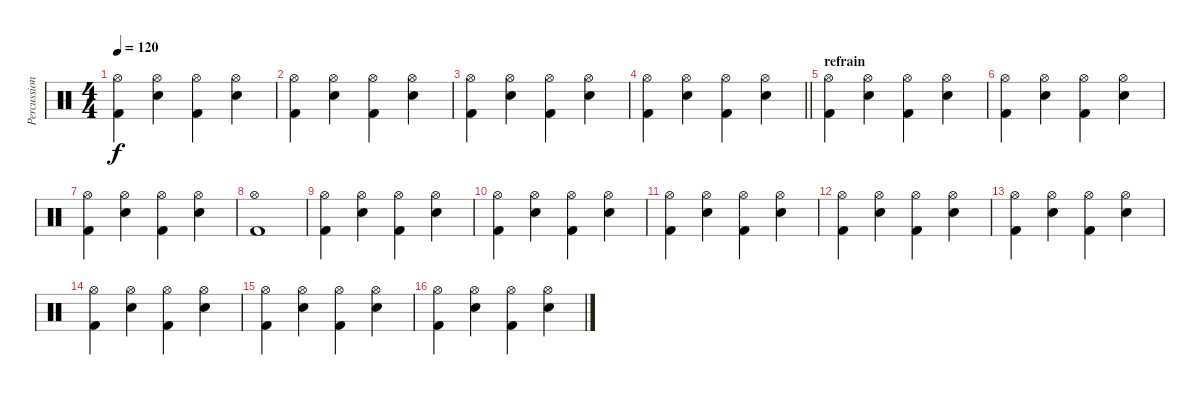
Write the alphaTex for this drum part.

\track ("Percussions" "Percussion") {instrument percussion}
\staff {score}
\articulation defaults
\ts (4 4)
\tempo 120
\clef neutral
\ks c
("Hi-Hat (open)" "Kick (hit) 2").4{dy f} ("Hi-Hat (open)" "Electric Snare (hit)").4 ("Hi-Hat (open)" "Kick (hit) 2").4 ("Hi-Hat (open)" "Electric Snare (hit)").4 |
("Hi-Hat (open)" "Kick (hit) 2").4 ("Hi-Hat (open)" "Electric Snare (hit)").4 ("Hi-Hat (open)" "Kick (hit) 2").4 ("Hi-Hat (open)" "Electric Snare (hit)").4 |
("Hi-Hat (open)" "Kick (hit) 2").4 ("Hi-Hat (open)" "Electric Snare (hit)").4 ("Hi-Hat (open)" "Kick (hit) 2").4 ("Hi-Hat (open)" "Electric Snare (hit)").4 |
\barLineRight lightlight
("Hi-Hat (open)" "Kick (hit) 2").4 ("Hi-Hat (open)" "Electric Snare (hit)").4 ("Hi-Hat (open)" "Kick (hit) 2").4 ("Hi-Hat (open)" "Electric Snare (hit)").4 |
\section ("" "refrain")
("Hi-Hat (open)" "Kick (hit) 2").4 ("Hi-Hat (open)" "Electric Snare (hit)").4 ("Hi-Hat (open)" "Kick (hit) 2").4 ("Hi-Hat (open)" "Electric Snare (hit)").4 |
("Hi-Hat (open)" "Kick (hit) 2").4 ("Hi-Hat (open)" "Electric Snare (hit)").4 ("Hi-Hat (open)" "Kick (hit) 2").4 ("Hi-Hat (open)" "Electric Snare (hit)").4 |
("Hi-Hat (open)" "Kick (hit) 2").4 ("Hi-Hat (open)" "Electric Snare (hit)").4 ("Hi-Hat (open)" "Kick (hit) 2").4 ("Hi-Hat (open)" "Electric Snare (hit)").4 |
("Hi-Hat (open)" "Kick (hit) 2").1 |
("Hi-Hat (open)" "Kick (hit) 2").4 ("Hi-Hat (open)" "Electric Snare (hit)").4 ("Hi-Hat (open)" "Kick (hit) 2").4 ("Hi-Hat (open)" "Electric Snare (hit)").4 |
("Hi-Hat (open)" "Kick (hit) 2").4 ("Hi-Hat (open)" "Electric Snare (hit)").4 ("Hi-Hat (open)" "Kick (hit) 2").4 ("Hi-Hat (open)" "Electric Snare (hit)").4 |
("Hi-Hat (open)" "Kick (hit) 2").4 ("Hi-Hat (open)" "Electric Snare (hit)").4 ("Hi-Hat (open)" "Kick (hit) 2").4 ("Hi-Hat (open)" "Electric Snare (hit)").4 |
("Hi-Hat (open)" "Kick (hit) 2").4 ("Hi-Hat (open)" "Electric Snare (hit)").4 ("Hi-Hat (open)" "Kick (hit) 2").4 ("Hi-Hat (open)" "Electric Snare (hit)").4 |
("Hi-Hat (open)" "Kick (hit) 2").4 ("Hi-Hat (open)" "Electric Snare (hit)").4 ("Hi-Hat (open)" "Kick (hit) 2").4 ("Hi-Hat (open)" "Electric Snare (hit)").4 |
("Hi-Hat (open)" "Kick (hit) 2").4 ("Hi-Hat (open)" "Electric Snare (hit)").4 ("Hi-Hat (open)" "Kick (hit) 2").4 ("Hi-Hat (open)" "Electric Snare (hit)").4 |
("Hi-Hat (open)" "Kick (hit) 2").4 ("Hi-Hat (open)" "Electric Snare (hit)").4 ("Hi-Hat (open)" "Kick (hit) 2").4 ("Hi-Hat (open)" "Electric Snare (hit)").4 |
("Hi-Hat (open)" "Kick (hit) 2").4 ("Hi-Hat (open)" "Electric Snare (hit)").4 ("Hi-Hat (open)" "Kick (hit) 2").4 ("Hi-Hat (open)" "Electric Snare (hit)").4
